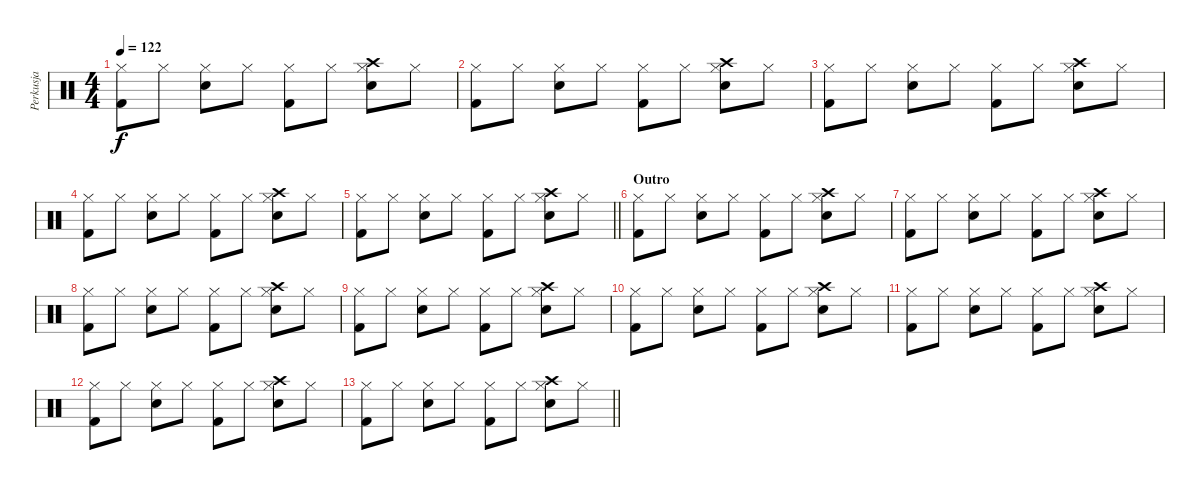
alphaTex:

\track ("Perkusja" "Perkusja") {instrument percussion}
\staff {score}
\articulation defaults
\ts (4 4)
\tempo 122
\clef neutral
\ks c
("Hi-Hat (closed)" "Kick (hit) 2").8{dy f} "Hi-Hat (closed)".8 ("Hi-Hat (closed)" "Electric Snare (hit)").8 "Hi-Hat (closed)".8 ("Hi-Hat (closed)" "Kick (hit) 2").8 "Hi-Hat (closed)".8 ("Hi-Hat (closed)" "Electric Snare (hit)" "Crash high (hit)").8 "Hi-Hat (closed)".8 |
("Hi-Hat (closed)" "Kick (hit) 2").8 "Hi-Hat (closed)".8 ("Hi-Hat (closed)" "Electric Snare (hit)").8 "Hi-Hat (closed)".8 ("Hi-Hat (closed)" "Kick (hit) 2").8 "Hi-Hat (closed)".8 ("Hi-Hat (closed)" "Electric Snare (hit)" "Crash high (hit)").8 "Hi-Hat (closed)".8 |
("Hi-Hat (closed)" "Kick (hit) 2").8 "Hi-Hat (closed)".8 ("Hi-Hat (closed)" "Electric Snare (hit)").8 "Hi-Hat (closed)".8 ("Hi-Hat (closed)" "Kick (hit) 2").8 "Hi-Hat (closed)".8 ("Hi-Hat (closed)" "Electric Snare (hit)" "Crash high (hit)").8 "Hi-Hat (closed)".8 |
("Hi-Hat (closed)" "Kick (hit) 2").8 "Hi-Hat (closed)".8 ("Hi-Hat (closed)" "Electric Snare (hit)").8 "Hi-Hat (closed)".8 ("Hi-Hat (closed)" "Kick (hit) 2").8 "Hi-Hat (closed)".8 ("Hi-Hat (closed)" "Electric Snare (hit)" "Crash high (hit)").8 "Hi-Hat (closed)".8 |
\barLineRight lightlight
("Hi-Hat (closed)" "Kick (hit) 2").8 "Hi-Hat (closed)".8 ("Hi-Hat (closed)" "Electric Snare (hit)").8 "Hi-Hat (closed)".8 ("Hi-Hat (closed)" "Kick (hit) 2").8 "Hi-Hat (closed)".8 ("Hi-Hat (closed)" "Electric Snare (hit)" "Crash high (hit)").8 "Hi-Hat (closed)".8 |
\section ("" "Outro")
("Hi-Hat (closed)" "Kick (hit) 2").8 "Hi-Hat (closed)".8 ("Hi-Hat (closed)" "Electric Snare (hit)").8 "Hi-Hat (closed)".8 ("Hi-Hat (closed)" "Kick (hit) 2").8 "Hi-Hat (closed)".8 ("Hi-Hat (closed)" "Electric Snare (hit)" "Crash high (hit)").8 "Hi-Hat (closed)".8 |
("Hi-Hat (closed)" "Kick (hit) 2").8 "Hi-Hat (closed)".8 ("Hi-Hat (closed)" "Electric Snare (hit)").8 "Hi-Hat (closed)".8 ("Hi-Hat (closed)" "Kick (hit) 2").8 "Hi-Hat (closed)".8 ("Hi-Hat (closed)" "Electric Snare (hit)" "Crash high (hit)").8 "Hi-Hat (closed)".8 |
("Hi-Hat (closed)" "Kick (hit) 2").8 "Hi-Hat (closed)".8 ("Hi-Hat (closed)" "Electric Snare (hit)").8 "Hi-Hat (closed)".8 ("Hi-Hat (closed)" "Kick (hit) 2").8 "Hi-Hat (closed)".8 ("Hi-Hat (closed)" "Electric Snare (hit)" "Crash high (hit)").8 "Hi-Hat (closed)".8 |
("Hi-Hat (closed)" "Kick (hit) 2").8 "Hi-Hat (closed)".8 ("Hi-Hat (closed)" "Electric Snare (hit)").8 "Hi-Hat (closed)".8 ("Hi-Hat (closed)" "Kick (hit) 2").8 "Hi-Hat (closed)".8 ("Hi-Hat (closed)" "Electric Snare (hit)" "Crash high (hit)").8 "Hi-Hat (closed)".8 |
("Hi-Hat (closed)" "Kick (hit) 2").8 "Hi-Hat (closed)".8 ("Hi-Hat (closed)" "Electric Snare (hit)").8 "Hi-Hat (closed)".8 ("Hi-Hat (closed)" "Kick (hit) 2").8 "Hi-Hat (closed)".8 ("Hi-Hat (closed)" "Electric Snare (hit)" "Crash high (hit)").8 "Hi-Hat (closed)".8 |
("Hi-Hat (closed)" "Kick (hit) 2").8 "Hi-Hat (closed)".8 ("Hi-Hat (closed)" "Electric Snare (hit)").8 "Hi-Hat (closed)".8 ("Hi-Hat (closed)" "Kick (hit) 2").8 "Hi-Hat (closed)".8 ("Hi-Hat (closed)" "Electric Snare (hit)" "Crash high (hit)").8 "Hi-Hat (closed)".8 |
("Hi-Hat (closed)" "Kick (hit) 2").8 "Hi-Hat (closed)".8 ("Hi-Hat (closed)" "Electric Snare (hit)").8 "Hi-Hat (closed)".8 ("Hi-Hat (closed)" "Kick (hit) 2").8 "Hi-Hat (closed)".8 ("Hi-Hat (closed)" "Electric Snare (hit)" "Crash high (hit)").8 "Hi-Hat (closed)".8 |
\barLineRight lightlight
("Hi-Hat (closed)" "Kick (hit) 2").8 "Hi-Hat (closed)".8 ("Hi-Hat (closed)" "Electric Snare (hit)").8 "Hi-Hat (closed)".8 ("Hi-Hat (closed)" "Kick (hit) 2").8 "Hi-Hat (closed)".8 ("Hi-Hat (closed)" "Electric Snare (hit)" "Crash high (hit)").8 "Hi-Hat (closed)".8
